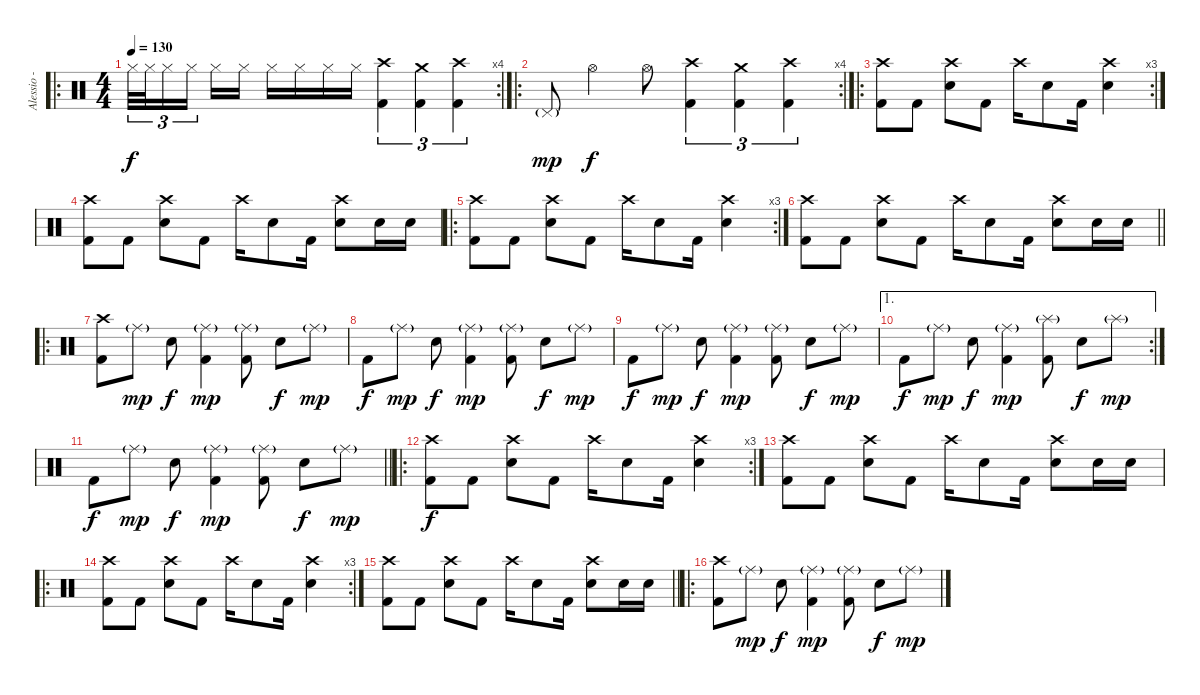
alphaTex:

\track ("Alessio - Drums" "Alessio - ") {instrument percussion}
\staff {score}
\articulation defaults
\ro
\rc 4
\ts (4 4)
\tempo 130
\clef neutral
\ks c "Hi-Hat (closed)".32{tu (3 2) dy f} "Hi-Hat (closed)".32{tu (3 2)} "Hi-Hat (closed)".16{tu (3 2)} "Hi-Hat (closed)".16{tu (3 2) beam splitsecondary} "Hi-Hat (closed)".16 "Hi-Hat (closed)".16 "Hi-Hat (closed)".16 "Hi-Hat (closed)".16 "Hi-Hat (closed)".16 "Hi-Hat (closed)".16
("Crash high (hit)" "Kick (hit) 2").4{tu (3 2)} ("Crash medium (hit)" "Kick (hit) 2").4{tu (3 2)} ("Crash high (hit)" "Kick (hit) 2").4{tu (3 2)} |
\ro
\rc 4 "Pedal Hi-Hat (hit)"{g}.8{dy mp} "Hi-Hat (open)".4{dy f} "Hi-Hat (open)".8
("Crash high (hit)" "Kick (hit) 2").4{tu (3 2)} ("Crash medium (hit)" "Kick (hit) 2").4{tu (3 2)} ("Crash high (hit)" "Kick (hit) 2").4{tu (3 2)} |
\ro
\rc 3
("Crash high (hit)" "Kick (hit) 2").8 "Kick (hit) 2".8 ("Crash high (hit)" "Electric Snare (hit)").8 "Kick (hit) 2".8 "Crash high (hit)".16 "Electric Snare (hit)".8 "Kick (hit) 2".16 ("Crash high (hit)" "Electric Snare (hit)").4 |
("Crash high (hit)" "Kick (hit) 2").8 "Kick (hit) 2".8 ("Crash high (hit)" "Electric Snare (hit)").8 "Kick (hit) 2".8 "Crash high (hit)".16 "Electric Snare (hit)".8 "Kick (hit) 2".16 ("Crash high (hit)" "Electric Snare (hit)").8 "Electric Snare (hit)".16 "Electric Snare (hit)".16 |
\ro
\rc 3
("Crash high (hit)" "Kick (hit) 2").8 "Kick (hit) 2".8 ("Crash high (hit)" "Electric Snare (hit)").8 "Kick (hit) 2".8 "Crash high (hit)".16 "Electric Snare (hit)".8 "Kick (hit) 2".16 ("Crash high (hit)" "Electric Snare (hit)").4 |
\barLineRight lightlight
("Crash high (hit)" "Kick (hit) 2").8 "Kick (hit) 2".8 ("Crash high (hit)" "Electric Snare (hit)").8 "Kick (hit) 2".8 "Crash high (hit)".16 "Electric Snare (hit)".8 "Kick (hit) 2".16 ("Crash high (hit)" "Electric Snare (hit)").8 "Electric Snare (hit)".16 "Electric Snare (hit)".16 |
\ro
\section ("" "")
("Crash high (hit)" "Kick (hit) 2").8 "Ride (middle)"{g}.8{dy mp} "Electric Snare (hit)".8{dy f} ("Ride (middle)"{g} "Kick (hit) 2").4{dy mp} ("Ride (middle)"{g} "Kick (hit) 2").8 "Electric Snare (hit)".8{dy f} "Ride (middle)"{g}.8{dy mp} |
"Kick (hit) 2".8{dy f} "Ride (middle)"{g}.8{dy mp} "Electric Snare (hit)".8{dy f} ("Ride (middle)"{g} "Kick (hit) 2").4{dy mp} ("Ride (middle)"{g} "Kick (hit) 2").8 "Electric Snare (hit)".8{dy f} "Ride (middle)"{g}.8{dy mp} |
"Kick (hit) 2".8{dy f} "Ride (middle)"{g}.8{dy mp} "Electric Snare (hit)".8{dy f} ("Ride (middle)"{g} "Kick (hit) 2").4{dy mp} ("Ride (middle)"{g} "Kick (hit) 2").8 "Electric Snare (hit)".8{dy f} "Ride (middle)"{g}.8{dy mp} |
\ae 1
\rc 2 "Kick (hit) 2".8{dy f} "Ride (middle)"{g}.8{dy mp} "Electric Snare (hit)".8{dy f}
("Ride (middle)"{g} "Kick (hit) 2").4{dy mp} ("Splash (hit)"{g} "Kick (hit) 2").8 "Electric Snare (hit)".8{dy f} "Splash (hit)"{g}.8{dy mp} |
\barLineRight lightlight "Kick (hit) 2".8{dy f} "Ride (middle)"{g}.8{dy mp} "Electric Snare (hit)".8{dy f}
("Ride (middle)"{g} "Kick (hit) 2").4{dy mp} ("Ride (middle)"{g} "Kick (hit) 2").8 "Electric Snare (hit)".8{dy f} "Ride (middle)"{g}.8{dy mp} |
\ro
\rc 3
\section ("" "")
("Crash high (hit)" "Kick (hit) 2").8{dy f} "Kick (hit) 2".8 ("Crash high (hit)" "Electric Snare (hit)").8 "Kick (hit) 2".8 "Crash high (hit)".16 "Electric Snare (hit)".8 "Kick (hit) 2".16 ("Crash high (hit)" "Electric Snare (hit)").4 |
("Crash high (hit)" "Kick (hit) 2").8 "Kick (hit) 2".8 ("Crash high (hit)" "Electric Snare (hit)").8 "Kick (hit) 2".8 "Crash high (hit)".16 "Electric Snare (hit)".8 "Kick (hit) 2".16 ("Crash high (hit)" "Electric Snare (hit)").8 "Electric Snare (hit)".16 "Electric Snare (hit)".16 |
\ro
\rc 3
("Crash high (hit)" "Kick (hit) 2").8 "Kick (hit) 2".8 ("Crash high (hit)" "Electric Snare (hit)").8 "Kick (hit) 2".8 "Crash high (hit)".16 "Electric Snare (hit)".8 "Kick (hit) 2".16 ("Crash high (hit)" "Electric Snare (hit)").4 |
\barLineRight lightlight
("Crash high (hit)" "Kick (hit) 2").8 "Kick (hit) 2".8 ("Crash high (hit)" "Electric Snare (hit)").8 "Kick (hit) 2".8 "Crash high (hit)".16 "Electric Snare (hit)".8 "Kick (hit) 2".16 ("Crash high (hit)" "Electric Snare (hit)").8 "Electric Snare (hit)".16 "Electric Snare (hit)".16 |
\ro
\section ("" "")
("Crash high (hit)" "Kick (hit) 2").8 "Ride (middle)"{g}.8{dy mp} "Electric Snare (hit)".8{dy f} ("Ride (middle)"{g} "Kick (hit) 2").4{dy mp} ("Ride (middle)"{g} "Kick (hit) 2").8 "Electric Snare (hit)".8{dy f} "Ride (middle)"{g}.8{dy mp}
